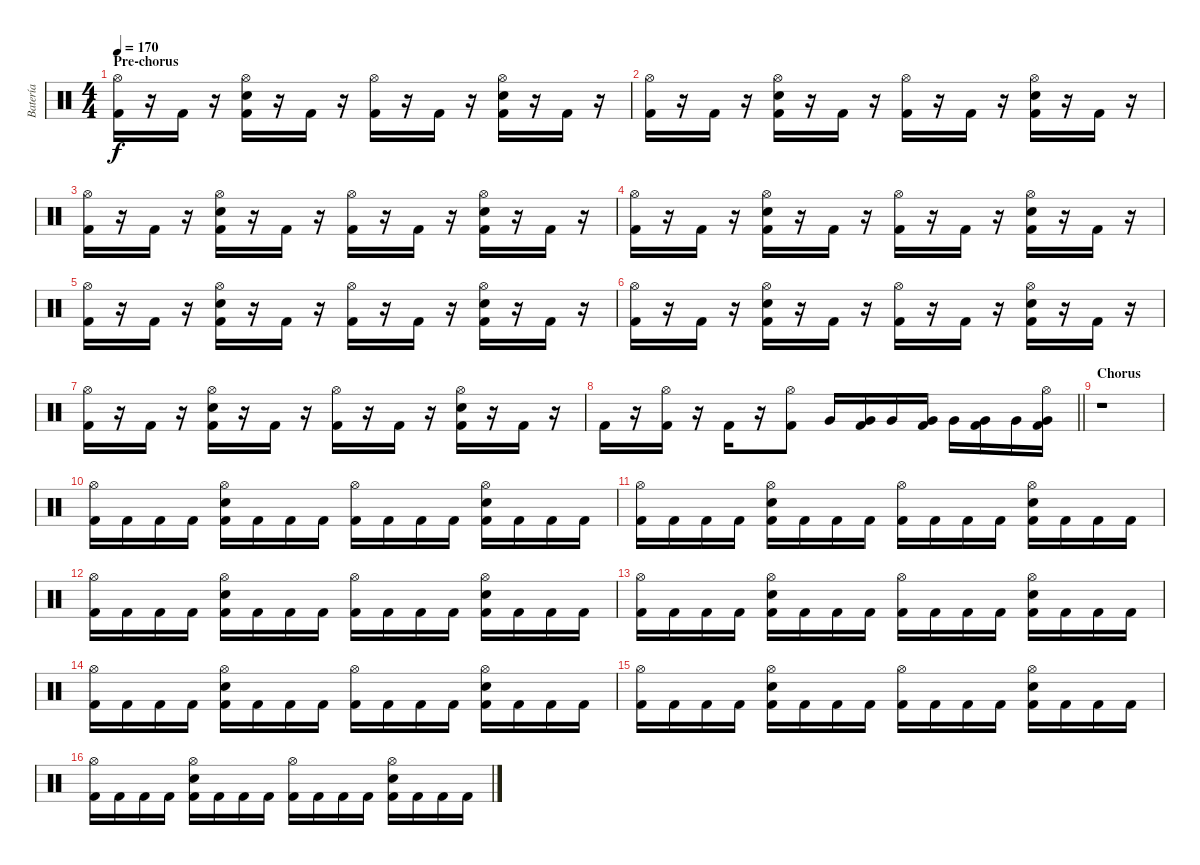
\track ("Batería" "Batería") {instrument percussion}
\staff {score}
\articulation defaults
\ts (4 4)
\section ("" "Pre-chorus")
\tempo 170
\clef neutral
\ks c
("Hi-Hat (open)" "Kick (hit) 2").16{dy f} r.16 "Kick (hit) 2".16 r.16 ("Hi-Hat (open)" "Snare (hit) 2" "Kick (hit) 2").16 r.16 "Kick (hit) 2".16 r.16 ("Hi-Hat (open)" "Kick (hit) 2").16 r.16 "Kick (hit) 2".16 r.16 ("Hi-Hat (open)" "Snare (hit) 2" "Kick (hit) 2").16 r.16 "Kick (hit) 2".16 r.16 |
("Hi-Hat (open)" "Kick (hit) 2").16 r.16 "Kick (hit) 2".16 r.16 ("Hi-Hat (open)" "Snare (hit) 2" "Kick (hit) 2").16 r.16 "Kick (hit) 2".16 r.16 ("Hi-Hat (open)" "Kick (hit) 2").16 r.16 "Kick (hit) 2".16 r.16 ("Hi-Hat (open)" "Snare (hit) 2" "Kick (hit) 2").16 r.16 "Kick (hit) 2".16 r.16 |
("Hi-Hat (open)" "Kick (hit) 2").16 r.16 "Kick (hit) 2".16 r.16 ("Hi-Hat (open)" "Snare (hit) 2" "Kick (hit) 2").16 r.16 "Kick (hit) 2".16 r.16 ("Hi-Hat (open)" "Kick (hit) 2").16 r.16 "Kick (hit) 2".16 r.16 ("Hi-Hat (open)" "Snare (hit) 2" "Kick (hit) 2").16 r.16 "Kick (hit) 2".16 r.16 |
("Hi-Hat (open)" "Kick (hit) 2").16 r.16 "Kick (hit) 2".16 r.16 ("Hi-Hat (open)" "Snare (hit) 2" "Kick (hit) 2").16 r.16 "Kick (hit) 2".16 r.16 ("Hi-Hat (open)" "Kick (hit) 2").16 r.16 "Kick (hit) 2".16 r.16 ("Hi-Hat (open)" "Snare (hit) 2" "Kick (hit) 2").16 r.16 "Kick (hit) 2".16 r.16 |
("Hi-Hat (open)" "Kick (hit) 2").16 r.16 "Kick (hit) 2".16 r.16 ("Hi-Hat (open)" "Snare (hit) 2" "Kick (hit) 2").16 r.16 "Kick (hit) 2".16 r.16 ("Hi-Hat (open)" "Kick (hit) 2").16 r.16 "Kick (hit) 2".16 r.16 ("Hi-Hat (open)" "Snare (hit) 2" "Kick (hit) 2").16 r.16 "Kick (hit) 2".16 r.16 |
("Hi-Hat (open)" "Kick (hit) 2").16 r.16 "Kick (hit) 2".16 r.16 ("Hi-Hat (open)" "Snare (hit) 2" "Kick (hit) 2").16 r.16 "Kick (hit) 2".16 r.16 ("Hi-Hat (open)" "Kick (hit) 2").16 r.16 "Kick (hit) 2".16 r.16 ("Hi-Hat (open)" "Snare (hit) 2" "Kick (hit) 2").16 r.16 "Kick (hit) 2".16 r.16 |
("Hi-Hat (open)" "Kick (hit) 2").16 r.16 "Kick (hit) 2".16 r.16 ("Hi-Hat (open)" "Snare (hit) 2" "Kick (hit) 2").16 r.16 "Kick (hit) 2".16 r.16 ("Hi-Hat (open)" "Kick (hit) 2").16 r.16 "Kick (hit) 2".16 r.16 ("Hi-Hat (open)" "Snare (hit) 2" "Kick (hit) 2").16 r.16 "Kick (hit) 2".16 r.16 |
\barLineRight lightlight "Kick (hit) 2".16
r.16 ("Hi-Hat (open)" "Kick (hit) 2").16 r.16 "Kick (hit) 2".16 r.16 ("Hi-Hat (open)" "Kick (hit) 2").8 "Very Low Tom (hit)".16 ("Very Low Tom (hit)" "Kick (hit) 2").16 "Very Low Tom (hit)".16 ("Very Low Tom (hit)" "Kick (hit) 2").16 "Very Low Tom (hit)".16 ("Very Low Tom (hit)" "Kick (hit) 2").16 "Very Low Tom (hit)".16 ("Hi-Hat (open)" "Very Low Tom (hit)" "Kick (hit) 2").16 |
\section ("" "Chorus")
r.1 |
("Hi-Hat (open)" "Kick (hit) 2").16 "Kick (hit) 2".16 "Kick (hit) 2".16 "Kick (hit) 2".16 ("Hi-Hat (open)" "Snare (hit) 2" "Kick (hit) 2").16 "Kick (hit) 2".16 "Kick (hit) 2".16 "Kick (hit) 2".16 ("Hi-Hat (open)" "Kick (hit) 2").16 "Kick (hit) 2".16 "Kick (hit) 2".16 "Kick (hit) 2".16 ("Hi-Hat (open)" "Snare (hit) 2" "Kick (hit) 2").16 "Kick (hit) 2".16 "Kick (hit) 2".16 "Kick (hit) 2".16 |
("Hi-Hat (open)" "Kick (hit) 2").16 "Kick (hit) 2".16 "Kick (hit) 2".16 "Kick (hit) 2".16 ("Hi-Hat (open)" "Snare (hit) 2" "Kick (hit) 2").16 "Kick (hit) 2".16 "Kick (hit) 2".16 "Kick (hit) 2".16 ("Hi-Hat (open)" "Kick (hit) 2").16 "Kick (hit) 2".16 "Kick (hit) 2".16 "Kick (hit) 2".16 ("Hi-Hat (open)" "Snare (hit) 2" "Kick (hit) 2").16 "Kick (hit) 2".16 "Kick (hit) 2".16 "Kick (hit) 2".16 |
("Hi-Hat (open)" "Kick (hit) 2").16 "Kick (hit) 2".16 "Kick (hit) 2".16 "Kick (hit) 2".16 ("Hi-Hat (open)" "Snare (hit) 2" "Kick (hit) 2").16 "Kick (hit) 2".16 "Kick (hit) 2".16 "Kick (hit) 2".16 ("Hi-Hat (open)" "Kick (hit) 2").16 "Kick (hit) 2".16 "Kick (hit) 2".16 "Kick (hit) 2".16 ("Hi-Hat (open)" "Snare (hit) 2" "Kick (hit) 2").16 "Kick (hit) 2".16 "Kick (hit) 2".16 "Kick (hit) 2".16 |
("Hi-Hat (open)" "Kick (hit) 2").16 "Kick (hit) 2".16 "Kick (hit) 2".16 "Kick (hit) 2".16 ("Hi-Hat (open)" "Snare (hit) 2" "Kick (hit) 2").16 "Kick (hit) 2".16 "Kick (hit) 2".16 "Kick (hit) 2".16 ("Hi-Hat (open)" "Kick (hit) 2").16 "Kick (hit) 2".16 "Kick (hit) 2".16 "Kick (hit) 2".16 ("Hi-Hat (open)" "Snare (hit) 2" "Kick (hit) 2").16 "Kick (hit) 2".16 "Kick (hit) 2".16 "Kick (hit) 2".16 |
("Hi-Hat (open)" "Kick (hit) 2").16 "Kick (hit) 2".16 "Kick (hit) 2".16 "Kick (hit) 2".16 ("Hi-Hat (open)" "Snare (hit) 2" "Kick (hit) 2").16 "Kick (hit) 2".16 "Kick (hit) 2".16 "Kick (hit) 2".16 ("Hi-Hat (open)" "Kick (hit) 2").16 "Kick (hit) 2".16 "Kick (hit) 2".16 "Kick (hit) 2".16 ("Hi-Hat (open)" "Snare (hit) 2" "Kick (hit) 2").16 "Kick (hit) 2".16 "Kick (hit) 2".16 "Kick (hit) 2".16 |
("Hi-Hat (open)" "Kick (hit) 2").16 "Kick (hit) 2".16 "Kick (hit) 2".16 "Kick (hit) 2".16 ("Hi-Hat (open)" "Snare (hit) 2" "Kick (hit) 2").16 "Kick (hit) 2".16 "Kick (hit) 2".16 "Kick (hit) 2".16 ("Hi-Hat (open)" "Kick (hit) 2").16 "Kick (hit) 2".16 "Kick (hit) 2".16 "Kick (hit) 2".16 ("Hi-Hat (open)" "Snare (hit) 2" "Kick (hit) 2").16 "Kick (hit) 2".16 "Kick (hit) 2".16 "Kick (hit) 2".16 |
("Hi-Hat (open)" "Kick (hit) 2").16 "Kick (hit) 2".16 "Kick (hit) 2".16 "Kick (hit) 2".16 ("Hi-Hat (open)" "Snare (hit) 2" "Kick (hit) 2").16 "Kick (hit) 2".16 "Kick (hit) 2".16 "Kick (hit) 2".16 ("Hi-Hat (open)" "Kick (hit) 2").16 "Kick (hit) 2".16 "Kick (hit) 2".16 "Kick (hit) 2".16 ("Hi-Hat (open)" "Snare (hit) 2" "Kick (hit) 2").16 "Kick (hit) 2".16 "Kick (hit) 2".16 "Kick (hit) 2".16
